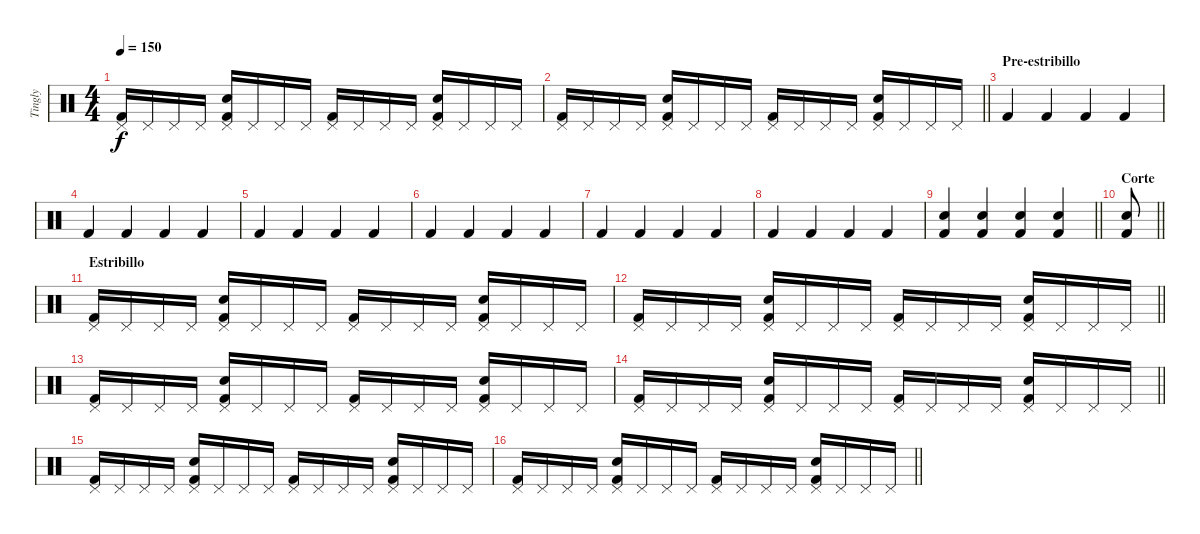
\track ("Tingly" "Tingly") {instrument percussion}
\staff {score}
\articulation defaults
\ts (4 4)
\tempo 150
\clef neutral
\ks c
("Pedal Hi-Hat (hit)" "Kick (hit) 2").16{dy f} "Pedal Hi-Hat (hit)".16 "Pedal Hi-Hat (hit)".16 "Pedal Hi-Hat (hit)".16 ("Electric Snare (hit)" "Pedal Hi-Hat (hit)" "Kick (hit) 2").16 "Pedal Hi-Hat (hit)".16 "Pedal Hi-Hat (hit)".16 "Pedal Hi-Hat (hit)".16 ("Pedal Hi-Hat (hit)" "Kick (hit) 2").16 "Pedal Hi-Hat (hit)".16 "Pedal Hi-Hat (hit)".16 "Pedal Hi-Hat (hit)".16 ("Electric Snare (hit)" "Pedal Hi-Hat (hit)" "Kick (hit) 2").16 "Pedal Hi-Hat (hit)".16 "Pedal Hi-Hat (hit)".16 "Pedal Hi-Hat (hit)".16 |
\barLineRight lightlight
("Pedal Hi-Hat (hit)" "Kick (hit) 2").16 "Pedal Hi-Hat (hit)".16 "Pedal Hi-Hat (hit)".16 "Pedal Hi-Hat (hit)".16 ("Electric Snare (hit)" "Pedal Hi-Hat (hit)" "Kick (hit) 2").16 "Pedal Hi-Hat (hit)".16 "Pedal Hi-Hat (hit)".16 "Pedal Hi-Hat (hit)".16 ("Pedal Hi-Hat (hit)" "Kick (hit) 2").16 "Pedal Hi-Hat (hit)".16 "Pedal Hi-Hat (hit)".16 "Pedal Hi-Hat (hit)".16 ("Electric Snare (hit)" "Pedal Hi-Hat (hit)" "Kick (hit) 2").16 "Pedal Hi-Hat (hit)".16 "Pedal Hi-Hat (hit)".16 "Pedal Hi-Hat (hit)".16 |
\section ("" "Pre-estribillo")
"Kick (hit) 2".4 "Kick (hit) 2".4 "Kick (hit) 2".4 "Kick (hit) 2".4 |
"Kick (hit) 2".4 "Kick (hit) 2".4 "Kick (hit) 2".4 "Kick (hit) 2".4 |
"Kick (hit) 2".4 "Kick (hit) 2".4 "Kick (hit) 2".4 "Kick (hit) 2".4 |
"Kick (hit) 2".4 "Kick (hit) 2".4 "Kick (hit) 2".4 "Kick (hit) 2".4 |
"Kick (hit) 2".4 "Kick (hit) 2".4 "Kick (hit) 2".4 "Kick (hit) 2".4 |
"Kick (hit) 2".4 "Kick (hit) 2".4 "Kick (hit) 2".4 "Kick (hit) 2".4 |
\barLineRight lightlight
("Electric Snare (hit)" "Kick (hit) 2").4 ("Electric Snare (hit)" "Kick (hit) 2").4 ("Electric Snare (hit)" "Kick (hit) 2").4 ("Electric Snare (hit)" "Kick (hit) 2").4 |
\section ("" "Corte")
\barLineRight lightlight
("Electric Snare (hit)" "Kick (hit) 2").8 |
\section ("" "Estribillo ")
("Pedal Hi-Hat (hit)" "Kick (hit) 2").16 "Pedal Hi-Hat (hit)".16 "Pedal Hi-Hat (hit)".16 "Pedal Hi-Hat (hit)".16 ("Electric Snare (hit)" "Pedal Hi-Hat (hit)" "Kick (hit) 2").16 "Pedal Hi-Hat (hit)".16 "Pedal Hi-Hat (hit)".16 "Pedal Hi-Hat (hit)".16 ("Pedal Hi-Hat (hit)" "Kick (hit) 2").16 "Pedal Hi-Hat (hit)".16 "Pedal Hi-Hat (hit)".16 "Pedal Hi-Hat (hit)".16 ("Electric Snare (hit)" "Pedal Hi-Hat (hit)" "Kick (hit) 2").16 "Pedal Hi-Hat (hit)".16 "Pedal Hi-Hat (hit)".16 "Pedal Hi-Hat (hit)".16 |
\barLineRight lightlight
("Pedal Hi-Hat (hit)" "Kick (hit) 2").16 "Pedal Hi-Hat (hit)".16 "Pedal Hi-Hat (hit)".16 "Pedal Hi-Hat (hit)".16 ("Electric Snare (hit)" "Pedal Hi-Hat (hit)" "Kick (hit) 2").16 "Pedal Hi-Hat (hit)".16 "Pedal Hi-Hat (hit)".16 "Pedal Hi-Hat (hit)".16 ("Pedal Hi-Hat (hit)" "Kick (hit) 2").16 "Pedal Hi-Hat (hit)".16 "Pedal Hi-Hat (hit)".16 "Pedal Hi-Hat (hit)".16 ("Electric Snare (hit)" "Pedal Hi-Hat (hit)" "Kick (hit) 2").16 "Pedal Hi-Hat (hit)".16 "Pedal Hi-Hat (hit)".16 "Pedal Hi-Hat (hit)".16 |
("Pedal Hi-Hat (hit)" "Kick (hit) 2").16 "Pedal Hi-Hat (hit)".16 "Pedal Hi-Hat (hit)".16 "Pedal Hi-Hat (hit)".16 ("Electric Snare (hit)" "Pedal Hi-Hat (hit)" "Kick (hit) 2").16 "Pedal Hi-Hat (hit)".16 "Pedal Hi-Hat (hit)".16 "Pedal Hi-Hat (hit)".16 ("Pedal Hi-Hat (hit)" "Kick (hit) 2").16 "Pedal Hi-Hat (hit)".16 "Pedal Hi-Hat (hit)".16 "Pedal Hi-Hat (hit)".16 ("Electric Snare (hit)" "Pedal Hi-Hat (hit)" "Kick (hit) 2").16 "Pedal Hi-Hat (hit)".16 "Pedal Hi-Hat (hit)".16 "Pedal Hi-Hat (hit)".16 |
\barLineRight lightlight
("Pedal Hi-Hat (hit)" "Kick (hit) 2").16 "Pedal Hi-Hat (hit)".16 "Pedal Hi-Hat (hit)".16 "Pedal Hi-Hat (hit)".16 ("Electric Snare (hit)" "Pedal Hi-Hat (hit)" "Kick (hit) 2").16 "Pedal Hi-Hat (hit)".16 "Pedal Hi-Hat (hit)".16 "Pedal Hi-Hat (hit)".16 ("Pedal Hi-Hat (hit)" "Kick (hit) 2").16 "Pedal Hi-Hat (hit)".16 "Pedal Hi-Hat (hit)".16 "Pedal Hi-Hat (hit)".16 ("Electric Snare (hit)" "Pedal Hi-Hat (hit)" "Kick (hit) 2").16 "Pedal Hi-Hat (hit)".16 "Pedal Hi-Hat (hit)".16 "Pedal Hi-Hat (hit)".16 |
("Pedal Hi-Hat (hit)" "Kick (hit) 2").16 "Pedal Hi-Hat (hit)".16 "Pedal Hi-Hat (hit)".16 "Pedal Hi-Hat (hit)".16 ("Electric Snare (hit)" "Pedal Hi-Hat (hit)" "Kick (hit) 2").16 "Pedal Hi-Hat (hit)".16 "Pedal Hi-Hat (hit)".16 "Pedal Hi-Hat (hit)".16 ("Pedal Hi-Hat (hit)" "Kick (hit) 2").16 "Pedal Hi-Hat (hit)".16 "Pedal Hi-Hat (hit)".16 "Pedal Hi-Hat (hit)".16 ("Electric Snare (hit)" "Pedal Hi-Hat (hit)" "Kick (hit) 2").16 "Pedal Hi-Hat (hit)".16 "Pedal Hi-Hat (hit)".16 "Pedal Hi-Hat (hit)".16 |
\barLineRight lightlight
("Pedal Hi-Hat (hit)" "Kick (hit) 2").16 "Pedal Hi-Hat (hit)".16 "Pedal Hi-Hat (hit)".16 "Pedal Hi-Hat (hit)".16 ("Electric Snare (hit)" "Pedal Hi-Hat (hit)" "Kick (hit) 2").16 "Pedal Hi-Hat (hit)".16 "Pedal Hi-Hat (hit)".16 "Pedal Hi-Hat (hit)".16 ("Pedal Hi-Hat (hit)" "Kick (hit) 2").16 "Pedal Hi-Hat (hit)".16 "Pedal Hi-Hat (hit)".16 "Pedal Hi-Hat (hit)".16 ("Electric Snare (hit)" "Pedal Hi-Hat (hit)" "Kick (hit) 2").16 "Pedal Hi-Hat (hit)".16 "Pedal Hi-Hat (hit)".16 "Pedal Hi-Hat (hit)".16
